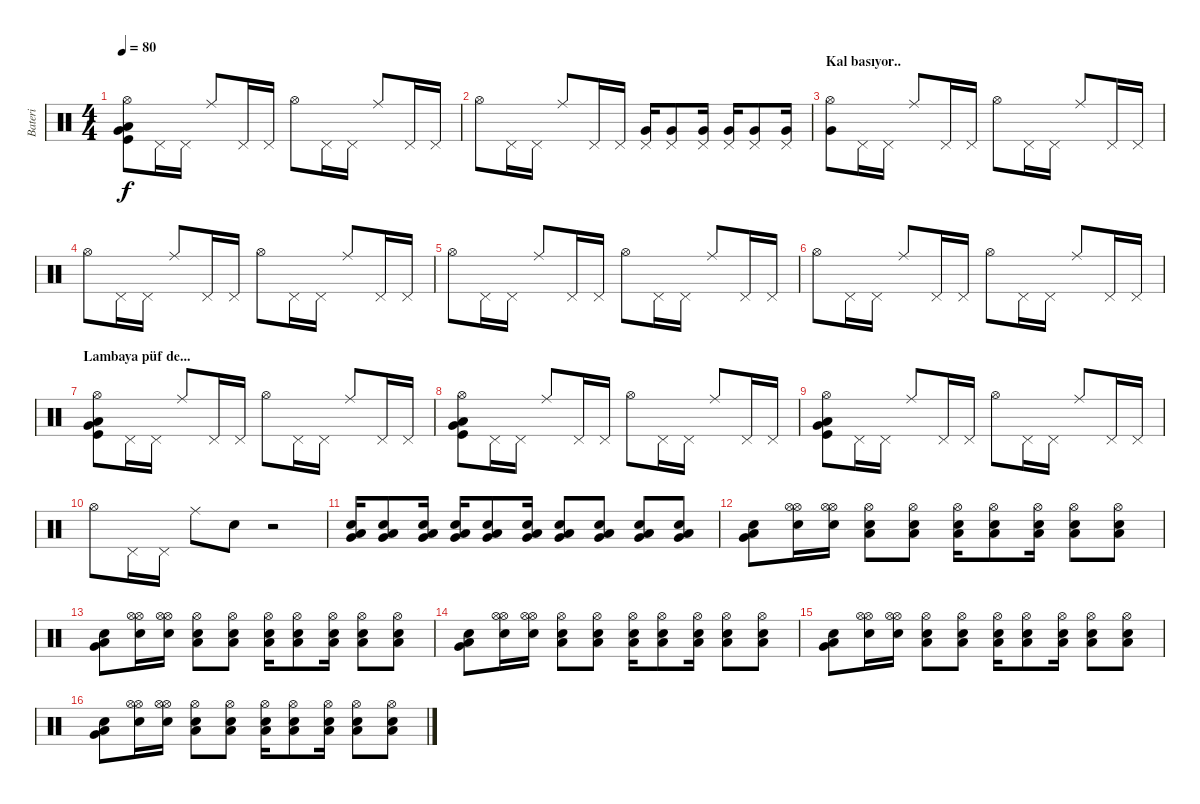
\track ("Bateri" "Bateri") {instrument percussion}
\staff {score}
\articulation defaults
\ts (4 4)
\tempo 80
\clef neutral
\ks c
("Hi-Hat (open)" "Kick (hit)" "Very Low Tom (hit)" "Low Floor Tom (hit)").8{dy f} "Pedal Hi-Hat (hit)".16 "Pedal Hi-Hat (hit)".16 "Ride (middle)".8 "Pedal Hi-Hat (hit)".16 "Pedal Hi-Hat (hit)".16 "Hi-Hat (open)".8 "Pedal Hi-Hat (hit)".16 "Pedal Hi-Hat (hit)".16 "Ride (middle)".8 "Pedal Hi-Hat (hit)".16 "Pedal Hi-Hat (hit)".16 |
"Hi-Hat (open)".8 "Pedal Hi-Hat (hit)".16 "Pedal Hi-Hat (hit)".16 "Ride (middle)".8 "Pedal Hi-Hat (hit)".16 "Pedal Hi-Hat (hit)".16 ("Pedal Hi-Hat (hit)" "Very Low Tom (hit)").16 ("Pedal Hi-Hat (hit)" "Very Low Tom (hit)").8 ("Pedal Hi-Hat (hit)" "Very Low Tom (hit)").16 ("Pedal Hi-Hat (hit)" "Very Low Tom (hit)").16 ("Pedal Hi-Hat (hit)" "Very Low Tom (hit)").8 ("Pedal Hi-Hat (hit)" "Very Low Tom (hit)").16 |
\section ("" "Kal basıyor..")
("Hi-Hat (open)" "Very Low Tom (hit)").8 "Pedal Hi-Hat (hit)".16 "Pedal Hi-Hat (hit)".16 "Ride (middle)".8 "Pedal Hi-Hat (hit)".16 "Pedal Hi-Hat (hit)".16 "Hi-Hat (open)".8 "Pedal Hi-Hat (hit)".16 "Pedal Hi-Hat (hit)".16 "Ride (middle)".8 "Pedal Hi-Hat (hit)".16 "Pedal Hi-Hat (hit)".16 |
"Hi-Hat (open)".8 "Pedal Hi-Hat (hit)".16 "Pedal Hi-Hat (hit)".16 "Ride (middle)".8 "Pedal Hi-Hat (hit)".16 "Pedal Hi-Hat (hit)".16 "Hi-Hat (open)".8 "Pedal Hi-Hat (hit)".16 "Pedal Hi-Hat (hit)".16 "Ride (middle)".8 "Pedal Hi-Hat (hit)".16 "Pedal Hi-Hat (hit)".16 |
"Hi-Hat (open)".8 "Pedal Hi-Hat (hit)".16 "Pedal Hi-Hat (hit)".16 "Ride (middle)".8 "Pedal Hi-Hat (hit)".16 "Pedal Hi-Hat (hit)".16 "Hi-Hat (open)".8 "Pedal Hi-Hat (hit)".16 "Pedal Hi-Hat (hit)".16 "Ride (middle)".8 "Pedal Hi-Hat (hit)".16 "Pedal Hi-Hat (hit)".16 |
"Hi-Hat (open)".8 "Pedal Hi-Hat (hit)".16 "Pedal Hi-Hat (hit)".16 "Ride (middle)".8 "Pedal Hi-Hat (hit)".16 "Pedal Hi-Hat (hit)".16 "Hi-Hat (open)".8 "Pedal Hi-Hat (hit)".16 "Pedal Hi-Hat (hit)".16 "Ride (middle)".8 "Pedal Hi-Hat (hit)".16 "Pedal Hi-Hat (hit)".16 |
\section ("" "Lambaya püf de...")
("Hi-Hat (open)" "Kick (hit)" "Very Low Tom (hit)" "Low Floor Tom (hit)").8 "Pedal Hi-Hat (hit)".16 "Pedal Hi-Hat (hit)".16 "Ride (middle)".8 "Pedal Hi-Hat (hit)".16 "Pedal Hi-Hat (hit)".16 "Hi-Hat (open)".8 "Pedal Hi-Hat (hit)".16 "Pedal Hi-Hat (hit)".16 "Ride (middle)".8 "Pedal Hi-Hat (hit)".16 "Pedal Hi-Hat (hit)".16 |
("Hi-Hat (open)" "Kick (hit)" "Very Low Tom (hit)" "Low Floor Tom (hit)").8 "Pedal Hi-Hat (hit)".16 "Pedal Hi-Hat (hit)".16 "Ride (middle)".8 "Pedal Hi-Hat (hit)".16 "Pedal Hi-Hat (hit)".16 "Hi-Hat (open)".8 "Pedal Hi-Hat (hit)".16 "Pedal Hi-Hat (hit)".16 "Ride (middle)".8 "Pedal Hi-Hat (hit)".16 "Pedal Hi-Hat (hit)".16 |
("Hi-Hat (open)" "Kick (hit)" "Very Low Tom (hit)" "Low Floor Tom (hit)").8 "Pedal Hi-Hat (hit)".16 "Pedal Hi-Hat (hit)".16 "Ride (middle)".8 "Pedal Hi-Hat (hit)".16 "Pedal Hi-Hat (hit)".16 "Hi-Hat (open)".8 "Pedal Hi-Hat (hit)".16 "Pedal Hi-Hat (hit)".16 "Ride (middle)".8 "Pedal Hi-Hat (hit)".16 "Pedal Hi-Hat (hit)".16 |
"Hi-Hat (open)".8 "Pedal Hi-Hat (hit)".16 "Pedal Hi-Hat (hit)".16 "Ride (middle)".8 "Electric Snare (hit)".8 r.2 |
("Electric Snare (hit)" "Very Low Tom (hit)" "Low Floor Tom (hit)").16 ("Electric Snare (hit)" "Very Low Tom (hit)" "Low Floor Tom (hit)").8 ("Electric Snare (hit)" "Very Low Tom (hit)" "Low Floor Tom (hit)").16 ("Electric Snare (hit)" "Very Low Tom (hit)" "Low Floor Tom (hit)").16 ("Electric Snare (hit)" "Very Low Tom (hit)" "Low Floor Tom (hit)").8 ("Electric Snare (hit)" "Very Low Tom (hit)" "Low Floor Tom (hit)").16 ("Electric Snare (hit)" "Very Low Tom (hit)" "Low Floor Tom (hit)").8 ("Electric Snare (hit)" "Very Low Tom (hit)" "Low Floor Tom (hit)").8 ("Electric Snare (hit)" "Very Low Tom (hit)" "Low Floor Tom (hit)").8 ("Electric Snare (hit)" "Very Low Tom (hit)" "Low Floor Tom (hit)").8 |
("Electric Snare (hit)" "Low Floor Tom (hit)" "Very Low Tom (hit)").8 ("Hi-Hat (open)" "Hi-Hat (open)" "Electric Snare (hit)").16 ("Hi-Hat (open)" "Hi-Hat (open)" "Electric Snare (hit)").16 ("Low Floor Tom (hit)" "Hi-Hat (open)" "Electric Snare (hit)").8 ("Low Floor Tom (hit)" "Hi-Hat (open)" "Electric Snare (hit)").8 ("Low Floor Tom (hit)" "Hi-Hat (open)" "Electric Snare (hit)").16 ("Low Floor Tom (hit)" "Hi-Hat (open)" "Electric Snare (hit)").8 ("Low Floor Tom (hit)" "Hi-Hat (open)" "Electric Snare (hit)").16 ("Low Floor Tom (hit)" "Hi-Hat (open)" "Electric Snare (hit)").8 ("Low Floor Tom (hit)" "Hi-Hat (open)" "Electric Snare (hit)").8 |
("Electric Snare (hit)" "Low Floor Tom (hit)" "Very Low Tom (hit)").8 ("Hi-Hat (open)" "Hi-Hat (open)" "Electric Snare (hit)").16 ("Hi-Hat (open)" "Hi-Hat (open)" "Electric Snare (hit)").16 ("Low Floor Tom (hit)" "Hi-Hat (open)" "Electric Snare (hit)").8 ("Low Floor Tom (hit)" "Hi-Hat (open)" "Electric Snare (hit)").8 ("Low Floor Tom (hit)" "Hi-Hat (open)" "Electric Snare (hit)").16 ("Low Floor Tom (hit)" "Hi-Hat (open)" "Electric Snare (hit)").8 ("Low Floor Tom (hit)" "Hi-Hat (open)" "Electric Snare (hit)").16 ("Low Floor Tom (hit)" "Hi-Hat (open)" "Electric Snare (hit)").8 ("Low Floor Tom (hit)" "Hi-Hat (open)" "Electric Snare (hit)").8 |
("Electric Snare (hit)" "Low Floor Tom (hit)" "Very Low Tom (hit)").8 ("Hi-Hat (open)" "Hi-Hat (open)" "Electric Snare (hit)").16 ("Hi-Hat (open)" "Hi-Hat (open)" "Electric Snare (hit)").16 ("Low Floor Tom (hit)" "Hi-Hat (open)" "Electric Snare (hit)").8 ("Low Floor Tom (hit)" "Hi-Hat (open)" "Electric Snare (hit)").8 ("Low Floor Tom (hit)" "Hi-Hat (open)" "Electric Snare (hit)").16 ("Low Floor Tom (hit)" "Hi-Hat (open)" "Electric Snare (hit)").8 ("Low Floor Tom (hit)" "Hi-Hat (open)" "Electric Snare (hit)").16 ("Low Floor Tom (hit)" "Hi-Hat (open)" "Electric Snare (hit)").8 ("Low Floor Tom (hit)" "Hi-Hat (open)" "Electric Snare (hit)").8 |
("Electric Snare (hit)" "Low Floor Tom (hit)" "Very Low Tom (hit)").8 ("Hi-Hat (open)" "Hi-Hat (open)" "Electric Snare (hit)").16 ("Hi-Hat (open)" "Hi-Hat (open)" "Electric Snare (hit)").16 ("Low Floor Tom (hit)" "Hi-Hat (open)" "Electric Snare (hit)").8 ("Low Floor Tom (hit)" "Hi-Hat (open)" "Electric Snare (hit)").8 ("Low Floor Tom (hit)" "Hi-Hat (open)" "Electric Snare (hit)").16 ("Low Floor Tom (hit)" "Hi-Hat (open)" "Electric Snare (hit)").8 ("Low Floor Tom (hit)" "Hi-Hat (open)" "Electric Snare (hit)").16 ("Low Floor Tom (hit)" "Hi-Hat (open)" "Electric Snare (hit)").8 ("Low Floor Tom (hit)" "Hi-Hat (open)" "Electric Snare (hit)").8 |
("Electric Snare (hit)" "Low Floor Tom (hit)" "Very Low Tom (hit)").8 ("Hi-Hat (open)" "Hi-Hat (open)" "Electric Snare (hit)").16 ("Hi-Hat (open)" "Hi-Hat (open)" "Electric Snare (hit)").16 ("Low Floor Tom (hit)" "Hi-Hat (open)" "Electric Snare (hit)").8 ("Low Floor Tom (hit)" "Hi-Hat (open)" "Electric Snare (hit)").8 ("Low Floor Tom (hit)" "Hi-Hat (open)" "Electric Snare (hit)").16 ("Low Floor Tom (hit)" "Hi-Hat (open)" "Electric Snare (hit)").8 ("Low Floor Tom (hit)" "Hi-Hat (open)" "Electric Snare (hit)").16 ("Low Floor Tom (hit)" "Hi-Hat (open)" "Electric Snare (hit)").8 ("Low Floor Tom (hit)" "Hi-Hat (open)" "Electric Snare (hit)").8
